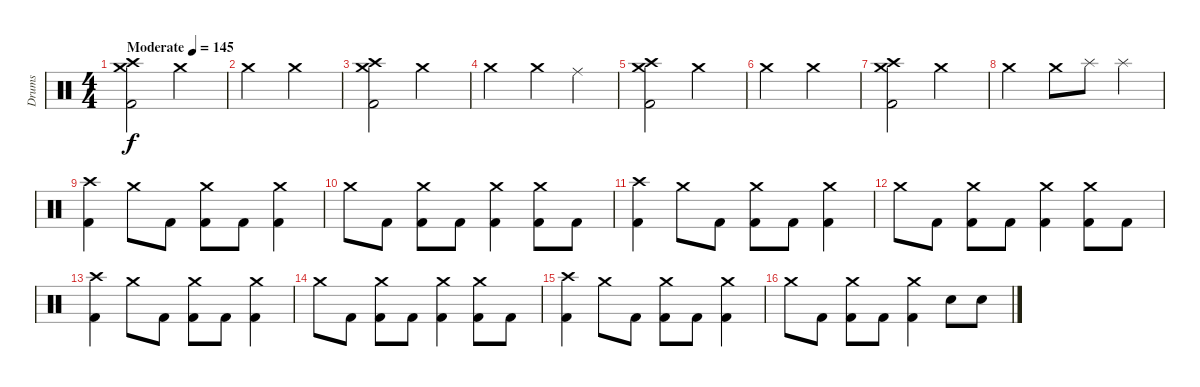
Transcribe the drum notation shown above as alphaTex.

\track ("Drums" "Drums") {instrument percussion}
\staff {score}
\articulation defaults
\ts (4 4)
\tempo (145 "Moderate")
\clef neutral
\ks c
("Crash high (hit)" "Crash medium (hit)" "Kick (hit) 2").2{dy f} "Crash medium (hit)".2 |
"Crash medium (hit)".2 "Crash medium (hit)".2 |
("Crash high (hit)" "Crash medium (hit)" "Kick (hit) 2").2 "Crash medium (hit)".2 |
"Crash medium (hit)".2 "Crash medium (hit)".4 "Ride (middle)".4 |
("Crash high (hit)" "Crash medium (hit)" "Kick (hit) 2").2 "Crash medium (hit)".2 |
"Crash medium (hit)".2 "Crash medium (hit)".2 |
("Crash high (hit)" "Crash medium (hit)" "Kick (hit) 2").2 "Crash medium (hit)".2 |
"Crash medium (hit)".2 "Crash medium (hit)".8 "Splash (hit)".8 "Splash (hit)".4 |
("Crash high (hit)" "Kick (hit) 2").4 "Crash medium (hit)".8 "Kick (hit) 2".8 ("Crash medium (hit)" "Kick (hit) 2").8 "Kick (hit) 2".8 ("Crash medium (hit)" "Kick (hit) 2").4 |
"Crash medium (hit)".8 "Kick (hit) 2".8 ("Crash medium (hit)" "Kick (hit) 2").8 "Kick (hit) 2".8 ("Crash medium (hit)" "Kick (hit) 2").4 ("Crash medium (hit)" "Kick (hit) 2").8 "Kick (hit) 2".8 |
("Crash high (hit)" "Kick (hit) 2").4 "Crash medium (hit)".8 "Kick (hit) 2".8 ("Crash medium (hit)" "Kick (hit) 2").8 "Kick (hit) 2".8 ("Crash medium (hit)" "Kick (hit) 2").4 |
"Crash medium (hit)".8 "Kick (hit) 2".8 ("Crash medium (hit)" "Kick (hit) 2").8 "Kick (hit) 2".8 ("Crash medium (hit)" "Kick (hit) 2").4 ("Crash medium (hit)" "Kick (hit) 2").8 "Kick (hit) 2".8 |
("Crash high (hit)" "Kick (hit) 2").4 "Crash medium (hit)".8 "Kick (hit) 2".8 ("Crash medium (hit)" "Kick (hit) 2").8 "Kick (hit) 2".8 ("Crash medium (hit)" "Kick (hit) 2").4 |
"Crash medium (hit)".8 "Kick (hit) 2".8 ("Crash medium (hit)" "Kick (hit) 2").8 "Kick (hit) 2".8 ("Crash medium (hit)" "Kick (hit) 2").4 ("Crash medium (hit)" "Kick (hit) 2").8 "Kick (hit) 2".8 |
("Crash high (hit)" "Kick (hit) 2").4 "Crash medium (hit)".8 "Kick (hit) 2".8 ("Crash medium (hit)" "Kick (hit) 2").8 "Kick (hit) 2".8 ("Crash medium (hit)" "Kick (hit) 2").4 |
"Crash medium (hit)".8 "Kick (hit) 2".8 ("Crash medium (hit)" "Kick (hit) 2").8 "Kick (hit) 2".8 ("Crash medium (hit)" "Kick (hit) 2").4 "Electric Snare (hit)".8 "Electric Snare (hit)".8
